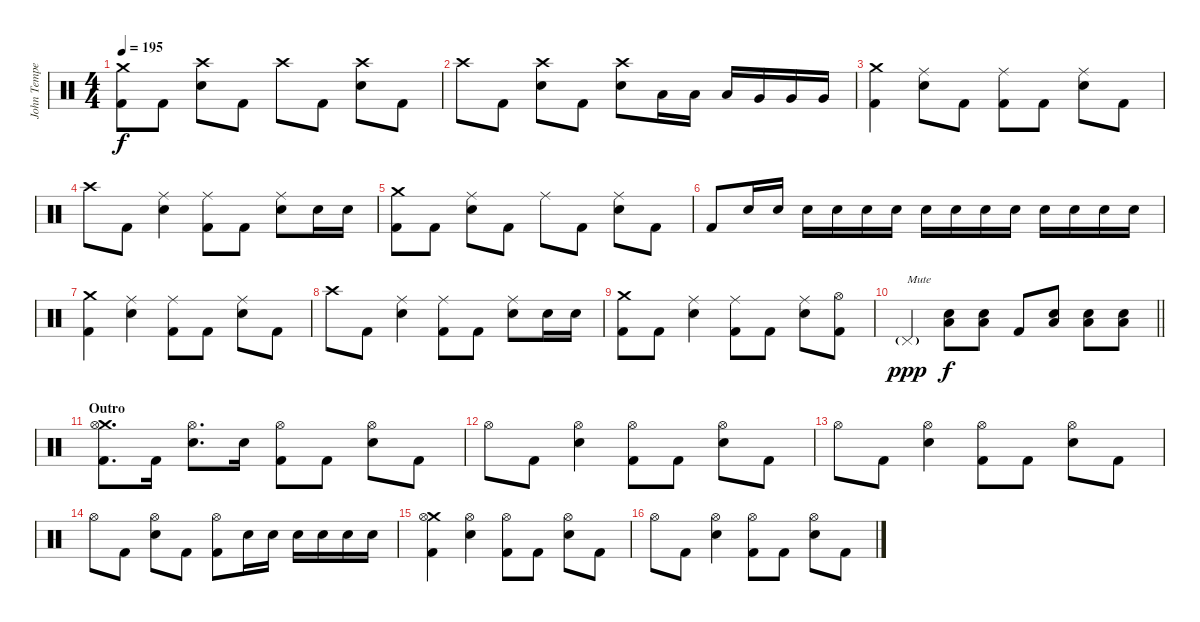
\track ("John Tempesta" "John Tempe") {instrument percussion}
\staff {score}
\articulation defaults
\ts (4 4)
\tempo 195
\clef neutral
\ks c
("Crash medium (hit)" "Kick (hit) 2").8{dy f} "Kick (hit) 2".8 ("Crash high (hit)" "Electric Snare (hit)").8 "Kick (hit) 2".8 "Crash high (hit)".8 "Kick (hit) 2".8 ("Crash high (hit)" "Electric Snare (hit)").8 "Kick (hit) 2".8 |
"Crash high (hit)".8 "Kick (hit) 2".8 ("Crash high (hit)" "Electric Snare (hit)").8 "Kick (hit) 2".8 ("Crash high (hit)" "Electric Snare (hit)").8 "Low Tom (hit)".16 "Low Tom (hit)".16 "Low Tom (hit)".16 "Very Low Tom (hit)".16 "Very Low Tom (hit)".16 "Very Low Tom (hit)".16 |
("Crash medium (hit)" "Kick (hit) 2").4 ("Ride (middle)" "Electric Snare (hit)").8 "Kick (hit) 2".8 ("Ride (middle)" "Kick (hit) 2").8 "Kick (hit) 2".8 ("Ride (middle)" "Electric Snare (hit)").8 "Kick (hit) 2".8 |
"Crash high (hit)".8 "Kick (hit) 2".8 ("Ride (middle)" "Electric Snare (hit)").4 ("Ride (middle)" "Kick (hit) 2").8 "Kick (hit) 2".8 ("Ride (middle)" "Electric Snare (hit)").8 "Electric Snare (hit)".16 "Electric Snare (hit)".16 |
("Crash medium (hit)" "Kick (hit) 2").8 "Kick (hit) 2".8 ("Ride (middle)" "Electric Snare (hit)").8 "Kick (hit) 2".8 "Ride (middle)".8 "Kick (hit) 2".8 ("Ride (middle)" "Electric Snare (hit)").8 "Kick (hit) 2".8 |
"Kick (hit) 2".8 "Electric Snare (hit)".16 "Electric Snare (hit)".16 "Electric Snare (hit)".16 "Electric Snare (hit)".16 "Electric Snare (hit)".16 "Electric Snare (hit)".16 "Electric Snare (hit)".16 "Electric Snare (hit)".16 "Electric Snare (hit)".16 "Electric Snare (hit)".16 "Electric Snare (hit)".16 "Electric Snare (hit)".16 "Electric Snare (hit)".16 "Electric Snare (hit)".16 |
("Crash medium (hit)" "Kick (hit) 2").4 ("Ride (middle)" "Electric Snare (hit)").4 ("Ride (middle)" "Kick (hit) 2").8 "Kick (hit) 2".8 ("Ride (middle)" "Electric Snare (hit)").8 "Kick (hit) 2".8 |
"Crash high (hit)".8 "Kick (hit) 2".8 ("Ride (middle)" "Electric Snare (hit)").4 ("Ride (middle)" "Kick (hit) 2").8 "Kick (hit) 2".8 ("Ride (middle)" "Electric Snare (hit)").8 "Electric Snare (hit)".16 "Electric Snare (hit)".16 |
("Crash medium (hit)" "Kick (hit) 2").8 "Kick (hit) 2".8 ("Ride (middle)" "Electric Snare (hit)").4 ("Ride (middle)" "Kick (hit) 2").8 "Kick (hit) 2".8 ("Ride (middle)" "Electric Snare (hit)").8 ("Hi-Hat (open)" "Kick (hit) 2").8 |
\barLineRight lightlight "Pedal Hi-Hat (hit)"{g}.4{txt "Mute" dy ppp}
("Electric Snare (hit)" "Low Floor Tom (hit)").8{dy f} ("Electric Snare (hit)" "Low Floor Tom (hit)").8 "Kick (hit) 2".8 ("Electric Snare (hit)" "Low Floor Tom (hit)").8 ("Electric Snare (hit)" "Low Floor Tom (hit)").8 ("Electric Snare (hit)" "Low Floor Tom (hit)").8 |
\section ("" "Outro")
("Crash medium (hit)" "Hi-Hat (open)" "Kick (hit) 2").8{d} "Kick (hit) 2".16 ("Hi-Hat (open)" "Electric Snare (hit)").8{d} "Electric Snare (hit)".16 ("Hi-Hat (open)" "Kick (hit) 2").8 "Kick (hit) 2".8 ("Hi-Hat (open)" "Electric Snare (hit)").8 "Kick (hit) 2".8 |
"Hi-Hat (open)".8 "Kick (hit) 2".8 ("Hi-Hat (open)" "Electric Snare (hit)").4 ("Hi-Hat (open)" "Kick (hit) 2").8 "Kick (hit) 2".8 ("Hi-Hat (open)" "Electric Snare (hit)").8 "Kick (hit) 2".8 |
"Hi-Hat (open)".8 "Kick (hit) 2".8 ("Hi-Hat (open)" "Electric Snare (hit)").4 ("Hi-Hat (open)" "Kick (hit) 2").8 "Kick (hit) 2".8 ("Hi-Hat (open)" "Electric Snare (hit)").8 "Kick (hit) 2".8 |
"Hi-Hat (open)".8 "Kick (hit) 2".8 ("Hi-Hat (open)" "Electric Snare (hit)").8 "Kick (hit) 2".8 ("Hi-Hat (open)" "Kick (hit) 2").8 "Electric Snare (hit)".16 "Electric Snare (hit)".16 "Electric Snare (hit)".16 "Electric Snare (hit)".16 "Electric Snare (hit)".16 "Electric Snare (hit)".16 |
("Crash medium (hit)" "Hi-Hat (open)" "Kick (hit) 2").4 ("Hi-Hat (open)" "Electric Snare (hit)").4 ("Hi-Hat (open)" "Kick (hit) 2").8 "Kick (hit) 2".8 ("Hi-Hat (open)" "Electric Snare (hit)").8 "Kick (hit) 2".8 |
"Hi-Hat (open)".8 "Kick (hit) 2".8 ("Hi-Hat (open)" "Electric Snare (hit)").4 ("Hi-Hat (open)" "Kick (hit) 2").8 "Kick (hit) 2".8 ("Hi-Hat (open)" "Electric Snare (hit)").8 "Kick (hit) 2".8
